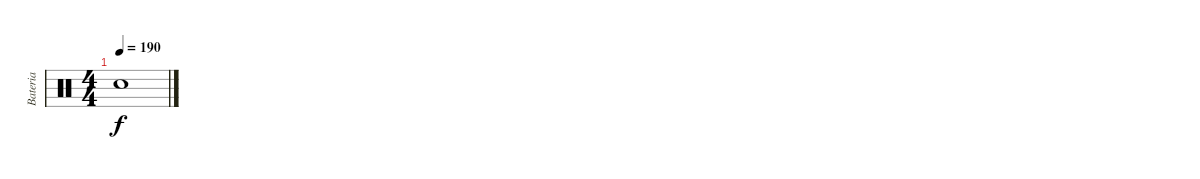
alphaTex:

\track ("Bateria" "Bateria") {instrument percussion}
\staff {score}
\articulation defaults
\ts (4 4)
\tempo 190
\clef neutral
\ks c "Snare (hit)"{t}.1{dy f}
